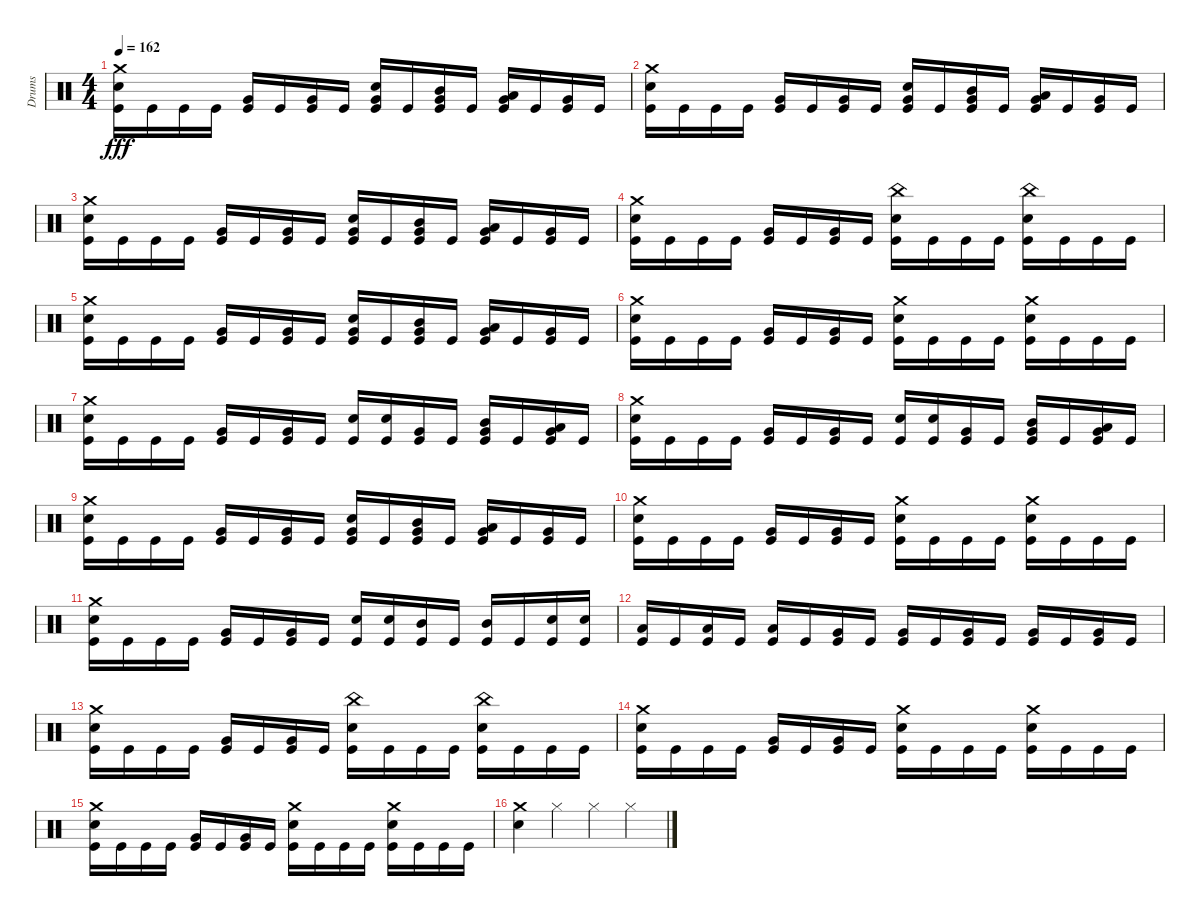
\track ("Drums" "Drums") {instrument percussion}
\staff {score}
\articulation defaults
\ts (4 4)
\tempo 162
\clef neutral
\ks c
("Crash medium (hit)" "Snare (hit) 2" "Kick (hit)").16{dy fff} "Kick (hit)".16 "Kick (hit)".16 "Kick (hit)".16 ("Very Low Tom (hit)" "Kick (hit)").16 "Kick (hit)".16 ("Very Low Tom (hit)" "Kick (hit)").16 "Kick (hit)".16 ("Snare (hit) 2" "Very Low Tom (hit)" "Kick (hit)").16 "Kick (hit)".16 ("Mid Tom (hit)" "Very Low Tom (hit)" "Kick (hit)").16 "Kick (hit)".16 ("Low Tom (hit)" "Very Low Tom (hit)" "Kick (hit)").16 "Kick (hit)".16 ("Very Low Tom (hit)" "Kick (hit)").16 "Kick (hit)".16 |
("Crash medium (hit)" "Snare (hit) 2" "Kick (hit)").16 "Kick (hit)".16 "Kick (hit)".16 "Kick (hit)".16 ("Very Low Tom (hit)" "Kick (hit)").16 "Kick (hit)".16 ("Very Low Tom (hit)" "Kick (hit)").16 "Kick (hit)".16 ("Snare (hit) 2" "Very Low Tom (hit)" "Kick (hit)").16 "Kick (hit)".16 ("Mid Tom (hit)" "Very Low Tom (hit)" "Kick (hit)").16 "Kick (hit)".16 ("Low Tom (hit)" "Very Low Tom (hit)" "Kick (hit)").16 "Kick (hit)".16 ("Very Low Tom (hit)" "Kick (hit)").16 "Kick (hit)".16 |
("Crash medium (hit)" "Snare (hit) 2" "Kick (hit)").16 "Kick (hit)".16 "Kick (hit)".16 "Kick (hit)".16 ("Very Low Tom (hit)" "Kick (hit)").16 "Kick (hit)".16 ("Very Low Tom (hit)" "Kick (hit)").16 "Kick (hit)".16 ("Snare (hit) 2" "Very Low Tom (hit)" "Kick (hit)").16 "Kick (hit)".16 ("Mid Tom (hit)" "Very Low Tom (hit)" "Kick (hit)").16 "Kick (hit)".16 ("Low Tom (hit)" "Very Low Tom (hit)" "Kick (hit)").16 "Kick (hit)".16 ("Very Low Tom (hit)" "Kick (hit)").16 "Kick (hit)".16 |
("Crash medium (hit)" "Snare (hit) 2" "Kick (hit)").16 "Kick (hit)".16 "Kick (hit)".16 "Kick (hit)".16 ("Very Low Tom (hit)" "Kick (hit)").16 "Kick (hit)".16 ("Very Low Tom (hit)" "Kick (hit)").16 "Kick (hit)".16 ("China (hit)" "Snare (hit) 2" "Kick (hit)").16 "Kick (hit)".16 "Kick (hit)".16 "Kick (hit)".16 ("Snare (hit) 2" "China (hit)" "Kick (hit)").16 "Kick (hit)".16 "Kick (hit)".16 "Kick (hit)".16 |
("Crash medium (hit)" "Snare (hit) 2" "Kick (hit)").16 "Kick (hit)".16 "Kick (hit)".16 "Kick (hit)".16 ("Very Low Tom (hit)" "Kick (hit)").16 "Kick (hit)".16 ("Very Low Tom (hit)" "Kick (hit)").16 "Kick (hit)".16 ("Snare (hit) 2" "Very Low Tom (hit)" "Kick (hit)").16 "Kick (hit)".16 ("Mid Tom (hit)" "Very Low Tom (hit)" "Kick (hit)").16 "Kick (hit)".16 ("Low Tom (hit)" "Very Low Tom (hit)" "Kick (hit)").16 "Kick (hit)".16 ("Very Low Tom (hit)" "Kick (hit)").16 "Kick (hit)".16 |
("Crash medium (hit)" "Snare (hit) 2" "Kick (hit)").16 "Kick (hit)".16 "Kick (hit)".16 "Kick (hit)".16 ("Very Low Tom (hit)" "Kick (hit)").16 "Kick (hit)".16 ("Very Low Tom (hit)" "Kick (hit)").16 "Kick (hit)".16 ("Crash medium (hit)" "Snare (hit) 2" "Kick (hit)").16 "Kick (hit)".16 "Kick (hit)".16 "Kick (hit)".16 ("Snare (hit) 2" "Crash medium (hit)" "Kick (hit)").16 "Kick (hit)".16 "Kick (hit)".16 "Kick (hit)".16 |
("Crash medium (hit)" "Snare (hit) 2" "Kick (hit)").16 "Kick (hit)".16 "Kick (hit)".16 "Kick (hit)".16 ("Very Low Tom (hit)" "Kick (hit)").16 "Kick (hit)".16 ("Very Low Tom (hit)" "Kick (hit)").16 "Kick (hit)".16 ("Snare (hit) 2" "Kick (hit)").16 ("Snare (hit) 2" "Kick (hit)").16 ("Very Low Tom (hit)" "Kick (hit)").16 "Kick (hit)".16 ("Mid Tom (hit)" "Very Low Tom (hit)" "Kick (hit)").16 "Kick (hit)".16 ("Low Tom (hit)" "Very Low Tom (hit)" "Kick (hit)").16 "Kick (hit)".16 |
("Crash medium (hit)" "Snare (hit) 2" "Kick (hit)").16 "Kick (hit)".16 "Kick (hit)".16 "Kick (hit)".16 ("Very Low Tom (hit)" "Kick (hit)").16 "Kick (hit)".16 ("Very Low Tom (hit)" "Kick (hit)").16 "Kick (hit)".16 ("Snare (hit) 2" "Kick (hit)").16 ("Snare (hit) 2" "Kick (hit)").16 ("Very Low Tom (hit)" "Kick (hit)").16 "Kick (hit)".16 ("Mid Tom (hit)" "Very Low Tom (hit)" "Kick (hit)").16 "Kick (hit)".16 ("Low Tom (hit)" "Very Low Tom (hit)" "Kick (hit)").16 "Kick (hit)".16 |
("Crash medium (hit)" "Snare (hit) 2" "Kick (hit)").16 "Kick (hit)".16 "Kick (hit)".16 "Kick (hit)".16 ("Very Low Tom (hit)" "Kick (hit)").16 "Kick (hit)".16 ("Very Low Tom (hit)" "Kick (hit)").16 "Kick (hit)".16 ("Snare (hit) 2" "Very Low Tom (hit)" "Kick (hit)").16 "Kick (hit)".16 ("Mid Tom (hit)" "Very Low Tom (hit)" "Kick (hit)").16 "Kick (hit)".16 ("Low Tom (hit)" "Very Low Tom (hit)" "Kick (hit)").16 "Kick (hit)".16 ("Very Low Tom (hit)" "Kick (hit)").16 "Kick (hit)".16 |
("Snare (hit) 2" "Crash medium (hit)" "Kick (hit)").16 "Kick (hit)".16 "Kick (hit)".16 "Kick (hit)".16 ("Very Low Tom (hit)" "Kick (hit)").16 "Kick (hit)".16 ("Very Low Tom (hit)" "Kick (hit)").16 "Kick (hit)".16 ("Crash medium (hit)" "Snare (hit) 2" "Kick (hit)").16 "Kick (hit)".16 "Kick (hit)".16 "Kick (hit)".16 ("Snare (hit) 2" "Crash medium (hit)" "Kick (hit)").16 "Kick (hit)".16 "Kick (hit)".16 "Kick (hit)".16 |
("Crash medium (hit)" "Snare (hit) 2" "Kick (hit)").16 "Kick (hit)".16 "Kick (hit)".16 "Kick (hit)".16 ("Very Low Tom (hit)" "Kick (hit)").16 "Kick (hit)".16 ("Very Low Tom (hit)" "Kick (hit)").16 "Kick (hit)".16 ("Snare (hit) 2" "Kick (hit)").16 ("Snare (hit) 2" "Kick (hit)").16 ("Mid Tom (hit)" "Kick (hit)").16 "Kick (hit)".16 ("Mid Tom (hit)" "Kick (hit)").16 "Kick (hit)".16 ("Snare (hit) 2" "Kick (hit)").16 ("Snare (hit) 2" "Kick (hit)").16 |
("Low Tom (hit)" "Kick (hit)").16 "Kick (hit)".16 ("Low Tom (hit)" "Kick (hit)").16 "Kick (hit)".16 ("Low Tom (hit)" "Kick (hit)").16 "Kick (hit)".16 ("Very Low Tom (hit)" "Kick (hit)").16 "Kick (hit)".16 ("Very Low Tom (hit)" "Kick (hit)").16 "Kick (hit)".16 ("Very Low Tom (hit)" "Kick (hit)").16 "Kick (hit)".16 ("Very Low Tom (hit)" "Kick (hit)").16 "Kick (hit)".16 ("Very Low Tom (hit)" "Kick (hit)").16 "Kick (hit)".16 |
("Crash medium (hit)" "Snare (hit) 2" "Kick (hit)").16 "Kick (hit)".16 "Kick (hit)".16 "Kick (hit)".16 ("Very Low Tom (hit)" "Kick (hit)").16 "Kick (hit)".16 ("Very Low Tom (hit)" "Kick (hit)").16 "Kick (hit)".16 ("China (hit)" "Snare (hit) 2" "Kick (hit)").16 "Kick (hit)".16 "Kick (hit)".16 "Kick (hit)".16 ("Snare (hit) 2" "China (hit)" "Kick (hit)").16 "Kick (hit)".16 "Kick (hit)".16 "Kick (hit)".16 |
("Crash medium (hit)" "Snare (hit) 2" "Kick (hit)").16 "Kick (hit)".16 "Kick (hit)".16 "Kick (hit)".16 ("Very Low Tom (hit)" "Kick (hit)").16 "Kick (hit)".16 ("Very Low Tom (hit)" "Kick (hit)").16 "Kick (hit)".16 ("Crash medium (hit)" "Snare (hit) 2" "Kick (hit)").16 "Kick (hit)".16 "Kick (hit)".16 "Kick (hit)".16 ("Snare (hit) 2" "Crash medium (hit)" "Kick (hit)").16 "Kick (hit)".16 "Kick (hit)".16 "Kick (hit)".16 |
("Crash medium (hit)" "Snare (hit) 2" "Kick (hit)").16 "Kick (hit)".16 "Kick (hit)".16 "Kick (hit)".16 ("Very Low Tom (hit)" "Kick (hit)").16 "Kick (hit)".16 ("Very Low Tom (hit)" "Kick (hit)").16 "Kick (hit)".16 ("Crash medium (hit)" "Snare (hit) 2" "Kick (hit)").16 "Kick (hit)".16 "Kick (hit)".16 "Kick (hit)".16 ("Crash medium (hit)" "Snare (hit) 2" "Kick (hit)").16 "Kick (hit)".16 "Kick (hit)".16 "Kick (hit)".16 |
("Crash medium (hit)" "Snare (hit) 2").4 "Hi-Hat (closed)".4 "Hi-Hat (closed)".4 "Hi-Hat (closed)".4
